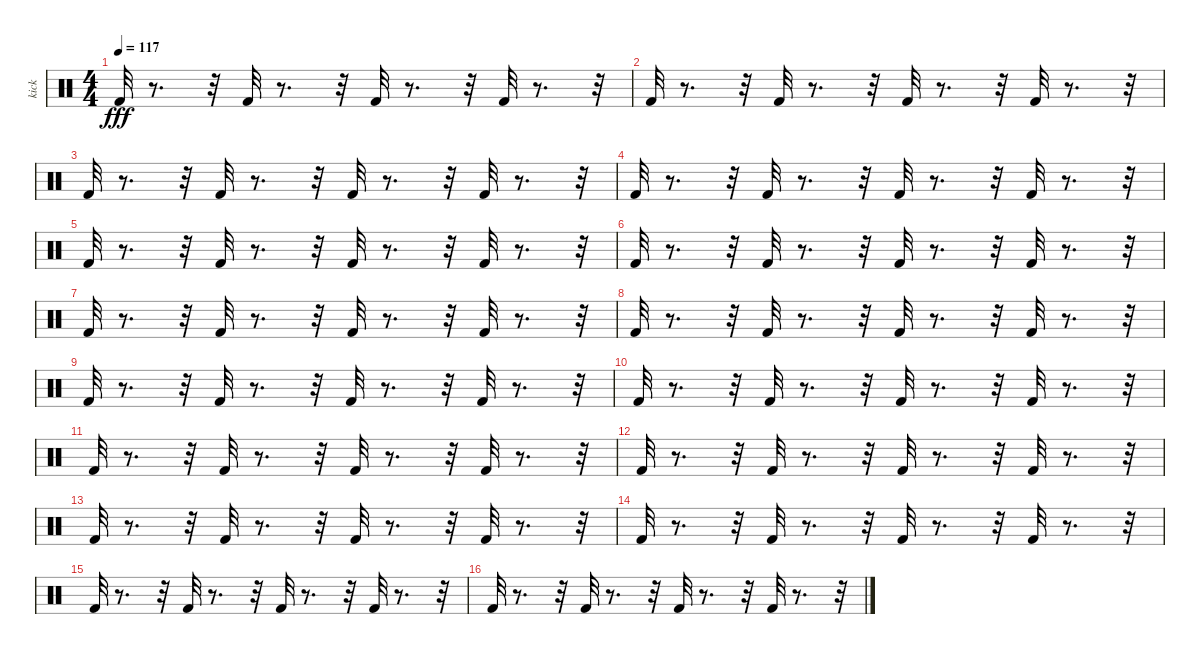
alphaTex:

\track ("kick" "kick") {instrument percussion}
\staff {score}
\articulation defaults
\ts (4 4)
\tempo 117
\clef neutral
\ks c "Kick (hit) 2".32{dy fff}
r.8{d} r.32 "Kick (hit) 2".32 r.8{d} r.32 "Kick (hit) 2".32 r.8{d} r.32 "Kick (hit) 2".32 r.8{d} r.32 |
"Kick (hit) 2".32 r.8{d} r.32 "Kick (hit) 2".32 r.8{d} r.32 "Kick (hit) 2".32 r.8{d} r.32 "Kick (hit) 2".32 r.8{d} r.32 |
"Kick (hit) 2".32 r.8{d} r.32 "Kick (hit) 2".32 r.8{d} r.32 "Kick (hit) 2".32 r.8{d} r.32 "Kick (hit) 2".32 r.8{d} r.32 |
"Kick (hit) 2".32 r.8{d} r.32 "Kick (hit) 2".32 r.8{d} r.32 "Kick (hit) 2".32 r.8{d} r.32 "Kick (hit) 2".32 r.8{d} r.32 |
"Kick (hit) 2".32 r.8{d} r.32 "Kick (hit) 2".32 r.8{d} r.32 "Kick (hit) 2".32 r.8{d} r.32 "Kick (hit) 2".32 r.8{d} r.32 |
"Kick (hit) 2".32 r.8{d} r.32 "Kick (hit) 2".32 r.8{d} r.32 "Kick (hit) 2".32 r.8{d} r.32 "Kick (hit) 2".32 r.8{d} r.32 |
"Kick (hit) 2".32 r.8{d} r.32 "Kick (hit) 2".32 r.8{d} r.32 "Kick (hit) 2".32 r.8{d} r.32 "Kick (hit) 2".32 r.8{d} r.32 |
"Kick (hit) 2".32 r.8{d} r.32 "Kick (hit) 2".32 r.8{d} r.32 "Kick (hit) 2".32 r.8{d} r.32 "Kick (hit) 2".32 r.8{d} r.32 |
"Kick (hit) 2".32 r.8{d} r.32 "Kick (hit) 2".32 r.8{d} r.32 "Kick (hit) 2".32 r.8{d} r.32 "Kick (hit) 2".32 r.8{d} r.32 |
"Kick (hit) 2".32 r.8{d} r.32 "Kick (hit) 2".32 r.8{d} r.32 "Kick (hit) 2".32 r.8{d} r.32 "Kick (hit) 2".32 r.8{d} r.32 |
"Kick (hit) 2".32 r.8{d} r.32 "Kick (hit) 2".32 r.8{d} r.32 "Kick (hit) 2".32 r.8{d} r.32 "Kick (hit) 2".32 r.8{d} r.32 |
"Kick (hit) 2".32 r.8{d} r.32 "Kick (hit) 2".32 r.8{d} r.32 "Kick (hit) 2".32 r.8{d} r.32 "Kick (hit) 2".32 r.8{d} r.32 |
"Kick (hit) 2".32 r.8{d} r.32 "Kick (hit) 2".32 r.8{d} r.32 "Kick (hit) 2".32 r.8{d} r.32 "Kick (hit) 2".32 r.8{d} r.32 |
"Kick (hit) 2".32 r.8{d} r.32 "Kick (hit) 2".32 r.8{d} r.32 "Kick (hit) 2".32 r.8{d} r.32 "Kick (hit) 2".32 r.8{d} r.32 |
"Kick (hit) 2".32 r.8{d} r.32 "Kick (hit) 2".32 r.8{d} r.32 "Kick (hit) 2".32 r.8{d} r.32 "Kick (hit) 2".32 r.8{d} r.32 |
"Kick (hit) 2".32 r.8{d} r.32 "Kick (hit) 2".32 r.8{d} r.32 "Kick (hit) 2".32 r.8{d} r.32 "Kick (hit) 2".32 r.8{d} r.32
